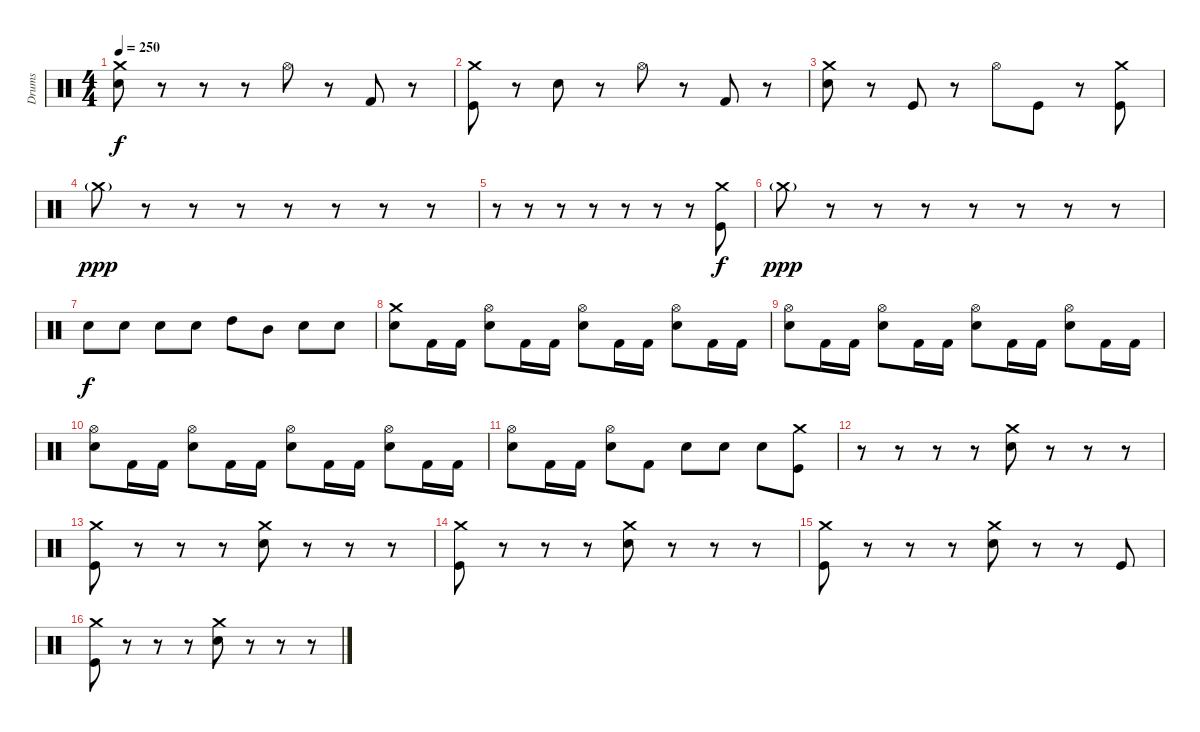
\track ("Drums" "Drums") {instrument percussion}
\staff {score}
\articulation defaults
\ts (4 4)
\tempo 250
\clef neutral
\ks c
("Crash medium (hit)" "Electric Snare (hit)").8{dy f} r.8 r.8 r.8 "Hi-Hat (open)".8 r.8 "Kick (hit) 2".8 r.8 |
("Crash medium (hit)" "Kick (hit)").8 r.8 "Electric Snare (hit)".8 r.8 "Hi-Hat (open)".8 r.8 "Kick (hit) 2".8 r.8 |
("Crash medium (hit)" "Electric Snare (hit)").8 r.8 "Kick (hit)".8 r.8 "Hi-Hat (open)".8 "Kick (hit)".8 r.8 ("Crash medium (hit)" "Kick (hit)").8 |
"Crash medium (hit)"{g}.8{dy ppp} r.8 r.8 r.8 r.8 r.8 r.8 r.8 |
r.8 r.8 r.8 r.8 r.8 r.8 r.8 ("Crash medium (hit)" "Kick (hit)").8{dy f} |
"Crash medium (hit)"{g}.8{dy ppp} r.8 r.8 r.8 r.8 r.8 r.8 r.8 |
"Electric Snare (hit)".8{dy f} "Electric Snare (hit)".8 "Electric Snare (hit)".8 "Electric Snare (hit)".8 "High Tom (hit)".8 "Mid Tom (hit)".8 "Electric Snare (hit)".8 "Electric Snare (hit)".8 |
("Crash medium (hit)" "Electric Snare (hit)").8 "Kick (hit) 2".16 "Kick (hit) 2".16 ("Hi-Hat (open)" "Electric Snare (hit)").8 "Kick (hit) 2".16 "Kick (hit) 2".16 ("Hi-Hat (open)" "Electric Snare (hit)").8 "Kick (hit) 2".16 "Kick (hit) 2".16 ("Hi-Hat (open)" "Electric Snare (hit)").8 "Kick (hit) 2".16 "Kick (hit) 2".16 |
("Hi-Hat (open)" "Electric Snare (hit)").8 "Kick (hit) 2".16 "Kick (hit) 2".16 ("Hi-Hat (open)" "Electric Snare (hit)").8 "Kick (hit) 2".16 "Kick (hit) 2".16 ("Hi-Hat (open)" "Electric Snare (hit)").8 "Kick (hit) 2".16 "Kick (hit) 2".16 ("Hi-Hat (open)" "Electric Snare (hit)").8 "Kick (hit) 2".16 "Kick (hit) 2".16 |
("Hi-Hat (open)" "Electric Snare (hit)").8 "Kick (hit) 2".16 "Kick (hit) 2".16 ("Hi-Hat (open)" "Electric Snare (hit)").8 "Kick (hit) 2".16 "Kick (hit) 2".16 ("Hi-Hat (open)" "Electric Snare (hit)").8 "Kick (hit) 2".16 "Kick (hit) 2".16 ("Hi-Hat (open)" "Electric Snare (hit)").8 "Kick (hit) 2".16 "Kick (hit) 2".16 |
("Hi-Hat (open)" "Electric Snare (hit)").8 "Kick (hit) 2".16 "Kick (hit) 2".16 ("Hi-Hat (open)" "Electric Snare (hit)").8 "Kick (hit) 2".8 "Electric Snare (hit)".8 "Electric Snare (hit)".8 "Electric Snare (hit)".8 ("Crash medium (hit)" "Kick (hit)").8 |
r.8 r.8 r.8 r.8 ("Crash medium (hit)" "Electric Snare (hit)").8 r.8 r.8 r.8 |
("Crash medium (hit)" "Kick (hit)").8 r.8 r.8 r.8 ("Crash medium (hit)" "Electric Snare (hit)").8 r.8 r.8 r.8 |
("Crash medium (hit)" "Kick (hit)").8 r.8 r.8 r.8 ("Crash medium (hit)" "Electric Snare (hit)").8 r.8 r.8 r.8 |
("Crash medium (hit)" "Kick (hit)").8 r.8 r.8 r.8 ("Crash medium (hit)" "Electric Snare (hit)").8 r.8 r.8 "Kick (hit)".8 |
("Crash medium (hit)" "Kick (hit)").8 r.8 r.8 r.8 ("Crash medium (hit)" "Electric Snare (hit)").8 r.8 r.8 r.8
